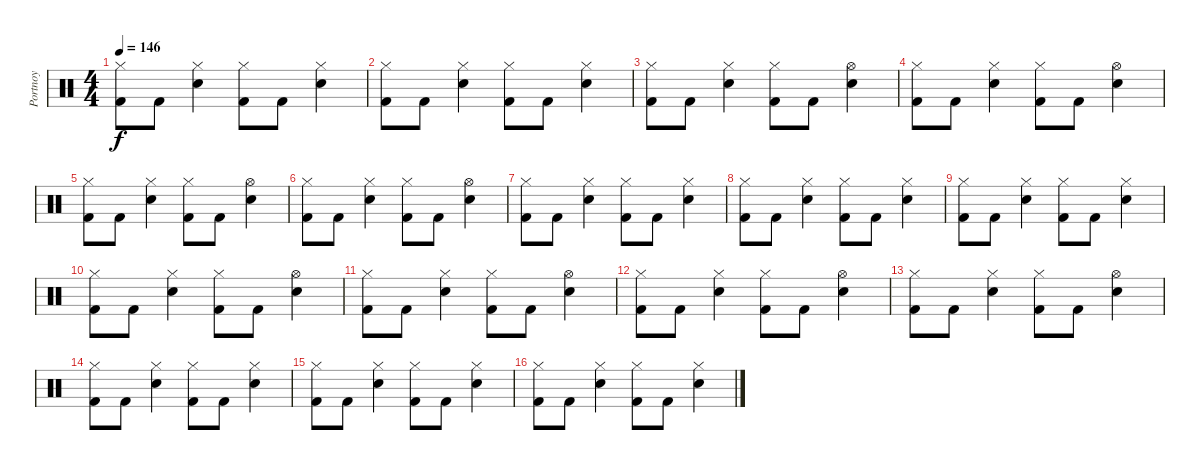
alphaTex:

\track ("Portnoy" "Portnoy") {instrument percussion}
\staff {score}
\articulation defaults
\ts (4 4)
\tempo 146
\clef neutral
\ks c
("Hi-Hat (closed)" "Kick (hit) 2").8{dy f} "Kick (hit) 2".8 ("Hi-Hat (closed)" "Electric Snare (hit)").4 ("Hi-Hat (closed)" "Kick (hit) 2").8 "Kick (hit) 2".8 ("Hi-Hat (closed)" "Electric Snare (hit)").4 |
("Hi-Hat (closed)" "Kick (hit) 2").8 "Kick (hit) 2".8 ("Hi-Hat (closed)" "Electric Snare (hit)").4 ("Hi-Hat (closed)" "Kick (hit) 2").8 "Kick (hit) 2".8 ("Hi-Hat (closed)" "Electric Snare (hit)").4 |
("Hi-Hat (closed)" "Kick (hit) 2").8 "Kick (hit) 2".8 ("Hi-Hat (closed)" "Electric Snare (hit)").4 ("Hi-Hat (closed)" "Kick (hit) 2").8 "Kick (hit) 2".8 ("Hi-Hat (open)" "Electric Snare (hit)").4 |
("Hi-Hat (closed)" "Kick (hit) 2").8 "Kick (hit) 2".8 ("Hi-Hat (closed)" "Electric Snare (hit)").4 ("Hi-Hat (closed)" "Kick (hit) 2").8 "Kick (hit) 2".8 ("Hi-Hat (open)" "Electric Snare (hit)").4 |
("Hi-Hat (closed)" "Kick (hit) 2").8 "Kick (hit) 2".8 ("Hi-Hat (closed)" "Electric Snare (hit)").4 ("Hi-Hat (closed)" "Kick (hit) 2").8 "Kick (hit) 2".8 ("Hi-Hat (open)" "Electric Snare (hit)").4 |
("Hi-Hat (closed)" "Kick (hit) 2").8 "Kick (hit) 2".8 ("Hi-Hat (closed)" "Electric Snare (hit)").4 ("Hi-Hat (closed)" "Kick (hit) 2").8 "Kick (hit) 2".8 ("Hi-Hat (open)" "Electric Snare (hit)").4 |
("Hi-Hat (closed)" "Kick (hit) 2").8 "Kick (hit) 2".8 ("Hi-Hat (closed)" "Electric Snare (hit)").4 ("Hi-Hat (closed)" "Kick (hit) 2").8 "Kick (hit) 2".8 ("Hi-Hat (closed)" "Electric Snare (hit)").4 |
("Hi-Hat (closed)" "Kick (hit) 2").8 "Kick (hit) 2".8 ("Hi-Hat (closed)" "Electric Snare (hit)").4 ("Hi-Hat (closed)" "Kick (hit) 2").8 "Kick (hit) 2".8 ("Hi-Hat (closed)" "Electric Snare (hit)").4 |
("Hi-Hat (closed)" "Kick (hit) 2").8 "Kick (hit) 2".8 ("Hi-Hat (closed)" "Electric Snare (hit)").4 ("Hi-Hat (closed)" "Kick (hit) 2").8 "Kick (hit) 2".8 ("Hi-Hat (closed)" "Electric Snare (hit)").4 |
("Hi-Hat (closed)" "Kick (hit) 2").8 "Kick (hit) 2".8 ("Hi-Hat (closed)" "Electric Snare (hit)").4 ("Hi-Hat (closed)" "Kick (hit) 2").8 "Kick (hit) 2".8 ("Hi-Hat (open)" "Electric Snare (hit)").4 |
("Hi-Hat (closed)" "Kick (hit) 2").8 "Kick (hit) 2".8 ("Hi-Hat (closed)" "Electric Snare (hit)").4 ("Hi-Hat (closed)" "Kick (hit) 2").8 "Kick (hit) 2".8 ("Hi-Hat (open)" "Electric Snare (hit)").4 |
("Hi-Hat (closed)" "Kick (hit) 2").8 "Kick (hit) 2".8 ("Hi-Hat (closed)" "Electric Snare (hit)").4 ("Hi-Hat (closed)" "Kick (hit) 2").8 "Kick (hit) 2".8 ("Hi-Hat (open)" "Electric Snare (hit)").4 |
("Hi-Hat (closed)" "Kick (hit) 2").8 "Kick (hit) 2".8 ("Hi-Hat (closed)" "Electric Snare (hit)").4 ("Hi-Hat (closed)" "Kick (hit) 2").8 "Kick (hit) 2".8 ("Hi-Hat (open)" "Electric Snare (hit)").4 |
("Hi-Hat (closed)" "Kick (hit) 2").8 "Kick (hit) 2".8 ("Hi-Hat (closed)" "Electric Snare (hit)").4 ("Hi-Hat (closed)" "Kick (hit) 2").8 "Kick (hit) 2".8 ("Hi-Hat (closed)" "Electric Snare (hit)").4 |
("Hi-Hat (closed)" "Kick (hit) 2").8 "Kick (hit) 2".8 ("Hi-Hat (closed)" "Electric Snare (hit)").4 ("Hi-Hat (closed)" "Kick (hit) 2").8 "Kick (hit) 2".8 ("Hi-Hat (closed)" "Electric Snare (hit)").4 |
("Hi-Hat (closed)" "Kick (hit) 2").8 "Kick (hit) 2".8 ("Hi-Hat (closed)" "Electric Snare (hit)").4 ("Hi-Hat (closed)" "Kick (hit) 2").8 "Kick (hit) 2".8 ("Hi-Hat (closed)" "Electric Snare (hit)").4
